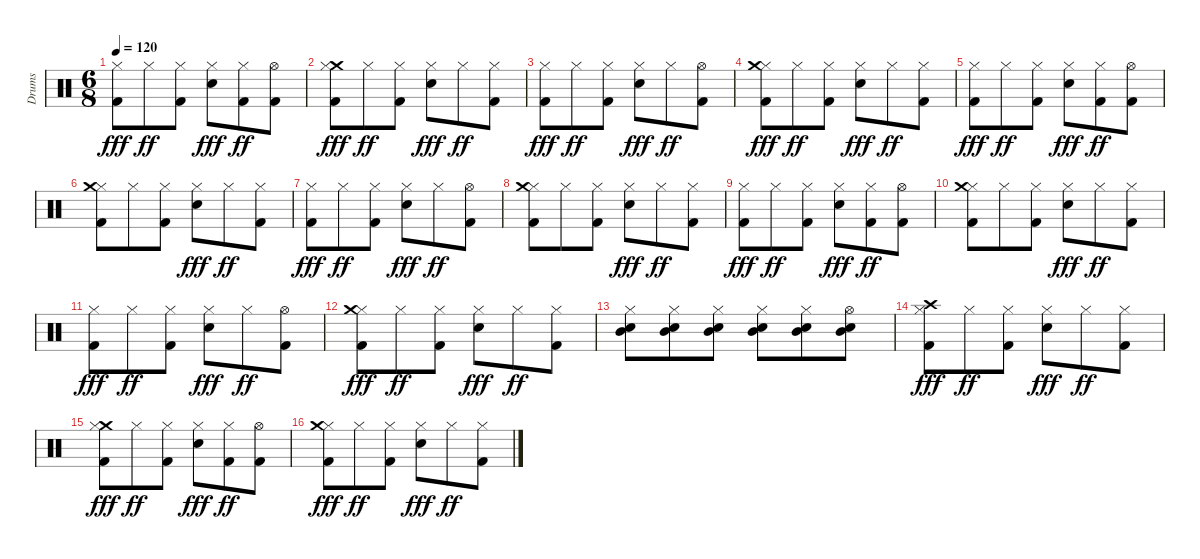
\track ("Drums" "Drums") {instrument percussion}
\staff {score}
\articulation defaults
\ts (6 8)
\tempo 120
\clef neutral
\ks c
("Hi-Hat (closed)" "Kick (hit) 2").8{dy fff} "Hi-Hat (closed)".8{dy ff} ("Hi-Hat (closed)" "Kick (hit) 2").8 ("Hi-Hat (closed)" "Snare (hit) 2").8{dy fff} ("Hi-Hat (closed)" "Kick (hit) 2").8{dy ff} ("Hi-Hat (open)" "Kick (hit) 2").8 |
("Crash medium (hit)" "Hi-Hat (closed)" "Kick (hit) 2").8{dy fff} "Hi-Hat (closed)".8{dy ff} ("Hi-Hat (closed)" "Kick (hit) 2").8 ("Hi-Hat (closed)" "Snare (hit) 2").8{dy fff} "Hi-Hat (closed)".8{dy ff} ("Hi-Hat (closed)" "Kick (hit) 2").8 |
("Hi-Hat (closed)" "Kick (hit) 2").8{dy fff} "Hi-Hat (closed)".8{dy ff} ("Hi-Hat (closed)" "Kick (hit) 2").8 ("Hi-Hat (closed)" "Snare (hit) 2").8{dy fff} "Hi-Hat (closed)".8{dy ff} ("Hi-Hat (open)" "Kick (hit) 2").8 |
("Hi-Hat (closed)" "Kick (hit) 2" "Crash medium (hit)").8{dy fff} "Hi-Hat (closed)".8{dy ff} ("Hi-Hat (closed)" "Kick (hit) 2").8 ("Hi-Hat (closed)" "Snare (hit) 2").8{dy fff} "Hi-Hat (closed)".8{dy ff} ("Hi-Hat (closed)" "Kick (hit) 2").8 |
("Hi-Hat (closed)" "Kick (hit) 2").8{dy fff} "Hi-Hat (closed)".8{dy ff} ("Hi-Hat (closed)" "Kick (hit) 2").8 ("Hi-Hat (closed)" "Snare (hit) 2").8{dy fff} ("Hi-Hat (closed)" "Kick (hit) 2").8{dy ff} ("Hi-Hat (open)" "Kick (hit) 2").8 |
("Hi-Hat (closed)" "Kick (hit) 2" "Crash medium (hit)").8 "Hi-Hat (closed)".8 ("Hi-Hat (closed)" "Kick (hit) 2").8 ("Hi-Hat (closed)" "Snare (hit) 2").8{dy fff} "Hi-Hat (closed)".8{dy ff} ("Hi-Hat (closed)" "Kick (hit) 2").8 |
("Hi-Hat (closed)" "Kick (hit) 2").8{dy fff} "Hi-Hat (closed)".8{dy ff} ("Hi-Hat (closed)" "Kick (hit) 2").8 ("Hi-Hat (closed)" "Snare (hit) 2").8{dy fff} "Hi-Hat (closed)".8{dy ff} ("Hi-Hat (open)" "Kick (hit) 2").8 |
("Hi-Hat (closed)" "Kick (hit) 2" "Crash medium (hit)").8 "Hi-Hat (closed)".8 ("Hi-Hat (closed)" "Kick (hit) 2").8 ("Hi-Hat (closed)" "Snare (hit) 2").8{dy fff} "Hi-Hat (closed)".8{dy ff} ("Hi-Hat (closed)" "Kick (hit) 2").8 |
("Hi-Hat (closed)" "Kick (hit) 2").8{dy fff} "Hi-Hat (closed)".8{dy ff} ("Hi-Hat (closed)" "Kick (hit) 2").8 ("Hi-Hat (closed)" "Snare (hit) 2").8{dy fff} ("Hi-Hat (closed)" "Kick (hit) 2").8{dy ff} ("Hi-Hat (open)" "Kick (hit) 2").8 |
("Hi-Hat (closed)" "Kick (hit) 2" "Crash medium (hit)").8 "Hi-Hat (closed)".8 ("Hi-Hat (closed)" "Kick (hit) 2").8 ("Hi-Hat (closed)" "Snare (hit) 2").8{dy fff} "Hi-Hat (closed)".8{dy ff} ("Hi-Hat (closed)" "Kick (hit) 2").8 |
("Hi-Hat (closed)" "Kick (hit) 2").8{dy fff} "Hi-Hat (closed)".8{dy ff} ("Hi-Hat (closed)" "Kick (hit) 2").8 ("Hi-Hat (closed)" "Snare (hit) 2").8{dy fff} "Hi-Hat (closed)".8{dy ff} ("Hi-Hat (open)" "Kick (hit) 2").8 |
("Hi-Hat (closed)" "Kick (hit) 2" "Crash medium (hit)").8{dy fff} "Hi-Hat (closed)".8{dy ff} ("Hi-Hat (closed)" "Kick (hit) 2").8 ("Hi-Hat (closed)" "Snare (hit) 2").8{dy fff} "Hi-Hat (closed)".8{dy ff} ("Hi-Hat (closed)" "Kick (hit) 2").8 |
("Hi-Hat (closed)" "Mid Tom (hit)" "Snare (hit) 2").8 ("Hi-Hat (closed)" "Mid Tom (hit)" "Snare (hit) 2").8 ("Hi-Hat (closed)" "Mid Tom (hit)" "Snare (hit) 2").8 ("Hi-Hat (closed)" "Mid Tom (hit)" "Snare (hit) 2").8 ("Hi-Hat (closed)" "Mid Tom (hit)" "Snare (hit) 2").8 ("Hi-Hat (open)" "Mid Tom (hit)" "Snare (hit) 2").8 |
("Crash high (hit)" "Hi-Hat (closed)" "Kick (hit) 2").8{dy fff} "Hi-Hat (closed)".8{dy ff} ("Hi-Hat (closed)" "Kick (hit) 2").8 ("Hi-Hat (closed)" "Snare (hit) 2").8{dy fff} "Hi-Hat (closed)".8{dy ff} ("Hi-Hat (closed)" "Kick (hit) 2").8 |
("Crash medium (hit)" "Hi-Hat (closed)" "Kick (hit) 2").8{dy fff} "Hi-Hat (closed)".8{dy ff} ("Hi-Hat (closed)" "Kick (hit) 2").8 ("Hi-Hat (closed)" "Snare (hit) 2").8{dy fff} ("Hi-Hat (closed)" "Kick (hit) 2").8{dy ff} ("Hi-Hat (open)" "Kick (hit) 2").8 |
("Hi-Hat (closed)" "Kick (hit) 2" "Crash medium (hit)").8{dy fff} "Hi-Hat (closed)".8{dy ff} ("Hi-Hat (closed)" "Kick (hit) 2").8 ("Hi-Hat (closed)" "Snare (hit) 2").8{dy fff} "Hi-Hat (closed)".8{dy ff} ("Hi-Hat (closed)" "Kick (hit) 2").8
